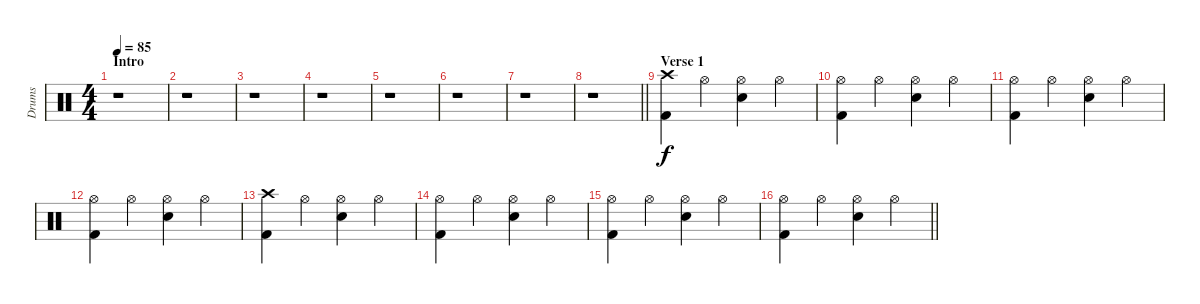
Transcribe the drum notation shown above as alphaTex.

\track ("Drums" "Drums") {instrument percussion}
\staff {score}
\articulation defaults
\ts (4 4)
\section ("" "Intro")
\tempo 85
\clef neutral
\ks c
r.1{dy f} |
r.1 |
r.1 |
r.1 |
r.1 |
r.1 |
r.1 |
\barLineRight lightlight
r.1 |
\section ("" "Verse 1")
("Crash high (hit)" "Kick (hit) 2").4 "Hi-Hat (open)".4 ("Hi-Hat (open)" "Snare (hit) 2").4 "Hi-Hat (open)".4 |
("Hi-Hat (open)" "Kick (hit) 2").4 "Hi-Hat (open)".4 ("Hi-Hat (open)" "Snare (hit) 2").4 "Hi-Hat (open)".4 |
("Hi-Hat (open)" "Kick (hit) 2").4 "Hi-Hat (open)".4 ("Hi-Hat (open)" "Snare (hit) 2").4 "Hi-Hat (open)".4 |
("Hi-Hat (open)" "Kick (hit) 2").4 "Hi-Hat (open)".4 ("Hi-Hat (open)" "Snare (hit) 2").4 "Hi-Hat (open)".4 |
("Crash high (hit)" "Kick (hit) 2").4 "Hi-Hat (open)".4 ("Hi-Hat (open)" "Snare (hit) 2").4 "Hi-Hat (open)".4 |
("Hi-Hat (open)" "Kick (hit) 2").4 "Hi-Hat (open)".4 ("Hi-Hat (open)" "Snare (hit) 2").4 "Hi-Hat (open)".4 |
("Hi-Hat (open)" "Kick (hit) 2").4 "Hi-Hat (open)".4 ("Hi-Hat (open)" "Snare (hit) 2").4 "Hi-Hat (open)".4 |
\barLineRight lightlight
("Hi-Hat (open)" "Kick (hit) 2").4 "Hi-Hat (open)".4 ("Hi-Hat (open)" "Snare (hit) 2").4 "Hi-Hat (open)".4
